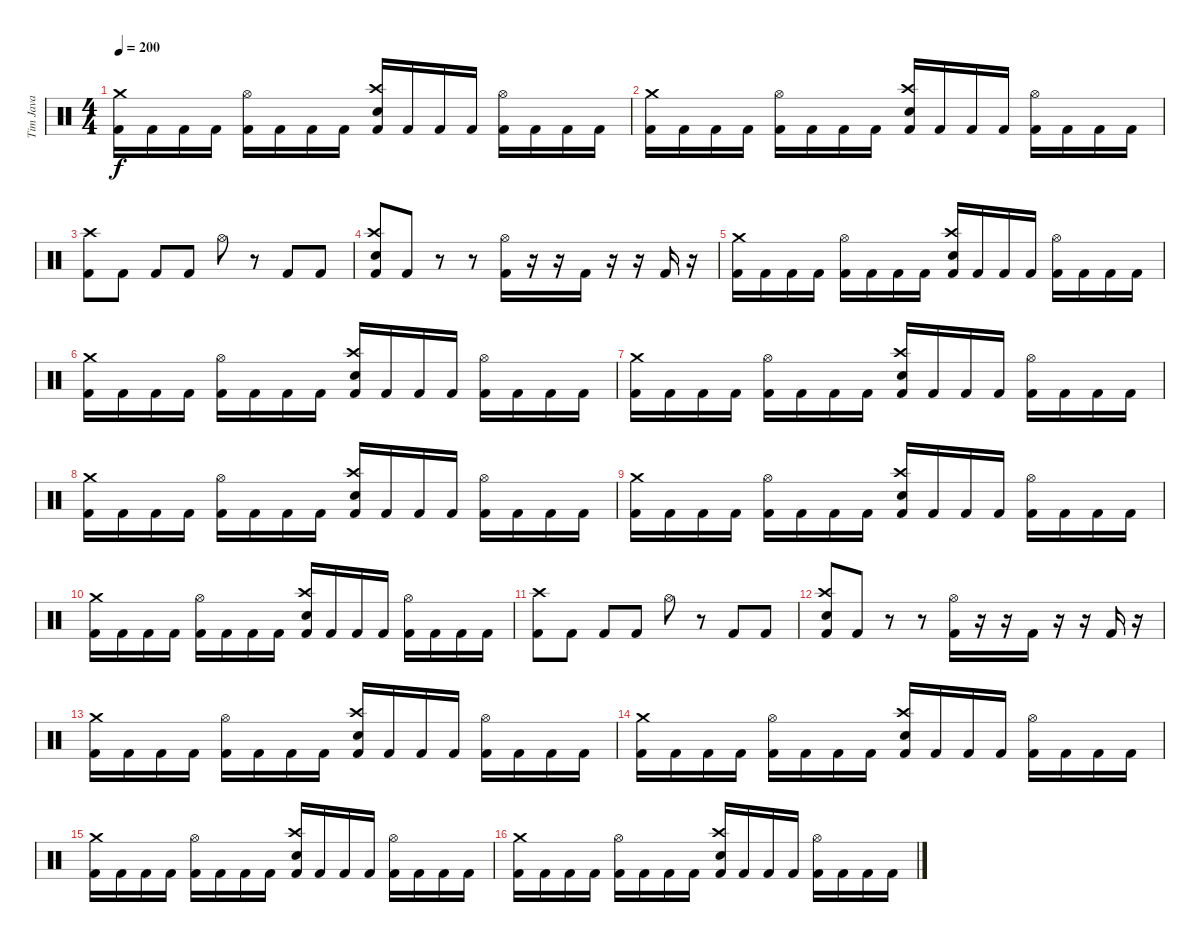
\track ("Tim Java" "Tim Java") {instrument percussion}
\staff {score}
\articulation defaults
\ts (4 4)
\tempo 200
\clef neutral
\ks c
("Crash medium (hit)" "Kick (hit) 2").16{dy f} "Kick (hit) 2".16 "Kick (hit) 2".16 "Kick (hit) 2".16 ("Hi-Hat (open)" "Kick (hit) 2").16 "Kick (hit) 2".16 "Kick (hit) 2".16 "Kick (hit) 2".16 ("Crash high (hit)" "Electric Snare (hit)" "Kick (hit) 2").16 "Kick (hit) 2".16 "Kick (hit) 2".16 "Kick (hit) 2".16 ("Hi-Hat (open)" "Kick (hit) 2").16 "Kick (hit) 2".16 "Kick (hit) 2".16 "Kick (hit) 2".16 |
("Crash medium (hit)" "Kick (hit) 2").16 "Kick (hit) 2".16 "Kick (hit) 2".16 "Kick (hit) 2".16 ("Hi-Hat (open)" "Kick (hit) 2").16 "Kick (hit) 2".16 "Kick (hit) 2".16 "Kick (hit) 2".16 ("Crash high (hit)" "Electric Snare (hit)" "Kick (hit) 2").16 "Kick (hit) 2".16 "Kick (hit) 2".16 "Kick (hit) 2".16 ("Hi-Hat (open)" "Kick (hit) 2").16 "Kick (hit) 2".16 "Kick (hit) 2".16 "Kick (hit) 2".16 |
("Crash high (hit)" "Kick (hit) 2").8 "Kick (hit) 2".8 "Kick (hit) 2".8 "Kick (hit) 2".8 "Hi-Hat (open)".8 r.8 "Kick (hit) 2".8 "Kick (hit) 2".8 |
("Crash high (hit)" "Electric Snare (hit)" "Kick (hit) 2").8 "Kick (hit) 2".8 r.8 r.8 ("Hi-Hat (open)" "Kick (hit) 2").16 r.16 r.16 "Kick (hit) 2".16 r.16 r.16 "Kick (hit) 2".16 r.16 |
("Crash medium (hit)" "Kick (hit) 2").16 "Kick (hit) 2".16 "Kick (hit) 2".16 "Kick (hit) 2".16 ("Hi-Hat (open)" "Kick (hit) 2").16 "Kick (hit) 2".16 "Kick (hit) 2".16 "Kick (hit) 2".16 ("Crash high (hit)" "Electric Snare (hit)" "Kick (hit) 2").16 "Kick (hit) 2".16 "Kick (hit) 2".16 "Kick (hit) 2".16 ("Hi-Hat (open)" "Kick (hit) 2").16 "Kick (hit) 2".16 "Kick (hit) 2".16 "Kick (hit) 2".16 |
("Crash medium (hit)" "Kick (hit) 2").16 "Kick (hit) 2".16 "Kick (hit) 2".16 "Kick (hit) 2".16 ("Hi-Hat (open)" "Kick (hit) 2").16 "Kick (hit) 2".16 "Kick (hit) 2".16 "Kick (hit) 2".16 ("Crash high (hit)" "Electric Snare (hit)" "Kick (hit) 2").16 "Kick (hit) 2".16 "Kick (hit) 2".16 "Kick (hit) 2".16 ("Hi-Hat (open)" "Kick (hit) 2").16 "Kick (hit) 2".16 "Kick (hit) 2".16 "Kick (hit) 2".16 |
("Crash medium (hit)" "Kick (hit) 2").16 "Kick (hit) 2".16 "Kick (hit) 2".16 "Kick (hit) 2".16 ("Hi-Hat (open)" "Kick (hit) 2").16 "Kick (hit) 2".16 "Kick (hit) 2".16 "Kick (hit) 2".16 ("Crash high (hit)" "Electric Snare (hit)" "Kick (hit) 2").16 "Kick (hit) 2".16 "Kick (hit) 2".16 "Kick (hit) 2".16 ("Hi-Hat (open)" "Kick (hit) 2").16 "Kick (hit) 2".16 "Kick (hit) 2".16 "Kick (hit) 2".16 |
("Crash medium (hit)" "Kick (hit) 2").16 "Kick (hit) 2".16 "Kick (hit) 2".16 "Kick (hit) 2".16 ("Hi-Hat (open)" "Kick (hit) 2").16 "Kick (hit) 2".16 "Kick (hit) 2".16 "Kick (hit) 2".16 ("Crash high (hit)" "Electric Snare (hit)" "Kick (hit) 2").16 "Kick (hit) 2".16 "Kick (hit) 2".16 "Kick (hit) 2".16 ("Hi-Hat (open)" "Kick (hit) 2").16 "Kick (hit) 2".16 "Kick (hit) 2".16 "Kick (hit) 2".16 |
("Crash medium (hit)" "Kick (hit) 2").16 "Kick (hit) 2".16 "Kick (hit) 2".16 "Kick (hit) 2".16 ("Hi-Hat (open)" "Kick (hit) 2").16 "Kick (hit) 2".16 "Kick (hit) 2".16 "Kick (hit) 2".16 ("Crash high (hit)" "Electric Snare (hit)" "Kick (hit) 2").16 "Kick (hit) 2".16 "Kick (hit) 2".16 "Kick (hit) 2".16 ("Hi-Hat (open)" "Kick (hit) 2").16 "Kick (hit) 2".16 "Kick (hit) 2".16 "Kick (hit) 2".16 |
("Crash medium (hit)" "Kick (hit) 2").16 "Kick (hit) 2".16 "Kick (hit) 2".16 "Kick (hit) 2".16 ("Hi-Hat (open)" "Kick (hit) 2").16 "Kick (hit) 2".16 "Kick (hit) 2".16 "Kick (hit) 2".16 ("Crash high (hit)" "Electric Snare (hit)" "Kick (hit) 2").16 "Kick (hit) 2".16 "Kick (hit) 2".16 "Kick (hit) 2".16 ("Hi-Hat (open)" "Kick (hit) 2").16 "Kick (hit) 2".16 "Kick (hit) 2".16 "Kick (hit) 2".16 |
("Crash high (hit)" "Kick (hit) 2").8 "Kick (hit) 2".8 "Kick (hit) 2".8 "Kick (hit) 2".8 "Hi-Hat (open)".8 r.8 "Kick (hit) 2".8 "Kick (hit) 2".8 |
("Crash high (hit)" "Electric Snare (hit)" "Kick (hit) 2").8 "Kick (hit) 2".8 r.8 r.8 ("Hi-Hat (open)" "Kick (hit) 2").16 r.16 r.16 "Kick (hit) 2".16 r.16 r.16 "Kick (hit) 2".16 r.16 |
("Crash medium (hit)" "Kick (hit) 2").16 "Kick (hit) 2".16 "Kick (hit) 2".16 "Kick (hit) 2".16 ("Hi-Hat (open)" "Kick (hit) 2").16 "Kick (hit) 2".16 "Kick (hit) 2".16 "Kick (hit) 2".16 ("Crash high (hit)" "Electric Snare (hit)" "Kick (hit) 2").16 "Kick (hit) 2".16 "Kick (hit) 2".16 "Kick (hit) 2".16 ("Hi-Hat (open)" "Kick (hit) 2").16 "Kick (hit) 2".16 "Kick (hit) 2".16 "Kick (hit) 2".16 |
("Crash medium (hit)" "Kick (hit) 2").16 "Kick (hit) 2".16 "Kick (hit) 2".16 "Kick (hit) 2".16 ("Hi-Hat (open)" "Kick (hit) 2").16 "Kick (hit) 2".16 "Kick (hit) 2".16 "Kick (hit) 2".16 ("Crash high (hit)" "Electric Snare (hit)" "Kick (hit) 2").16 "Kick (hit) 2".16 "Kick (hit) 2".16 "Kick (hit) 2".16 ("Hi-Hat (open)" "Kick (hit) 2").16 "Kick (hit) 2".16 "Kick (hit) 2".16 "Kick (hit) 2".16 |
("Crash medium (hit)" "Kick (hit) 2").16 "Kick (hit) 2".16 "Kick (hit) 2".16 "Kick (hit) 2".16 ("Hi-Hat (open)" "Kick (hit) 2").16 "Kick (hit) 2".16 "Kick (hit) 2".16 "Kick (hit) 2".16 ("Crash high (hit)" "Electric Snare (hit)" "Kick (hit) 2").16 "Kick (hit) 2".16 "Kick (hit) 2".16 "Kick (hit) 2".16 ("Hi-Hat (open)" "Kick (hit) 2").16 "Kick (hit) 2".16 "Kick (hit) 2".16 "Kick (hit) 2".16 |
("Crash medium (hit)" "Kick (hit) 2").16 "Kick (hit) 2".16 "Kick (hit) 2".16 "Kick (hit) 2".16 ("Hi-Hat (open)" "Kick (hit) 2").16 "Kick (hit) 2".16 "Kick (hit) 2".16 "Kick (hit) 2".16 ("Crash high (hit)" "Electric Snare (hit)" "Kick (hit) 2").16 "Kick (hit) 2".16 "Kick (hit) 2".16 "Kick (hit) 2".16 ("Hi-Hat (open)" "Kick (hit) 2").16 "Kick (hit) 2".16 "Kick (hit) 2".16 "Kick (hit) 2".16
